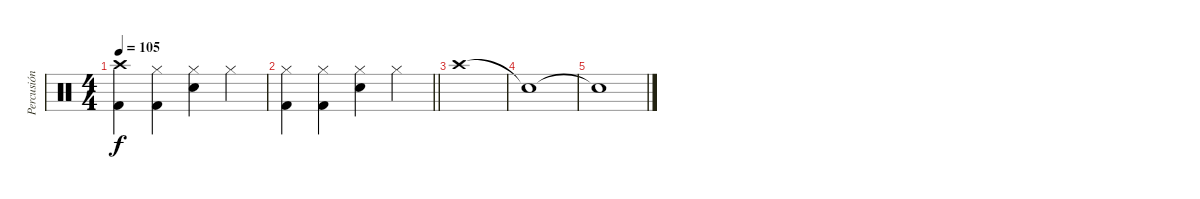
\track ("Percusión" "Percusión") {instrument percussion}
\staff {score}
\articulation defaults
\ts (4 4)
\tempo 105
\clef neutral
\ks c
("Kick (hit) 2" "Crash high (hit)").4{dy f} ("Kick (hit) 2" "Hi-Hat (closed)").4 ("Snare (hit) 2" "Hi-Hat (closed)").4 "Hi-Hat (closed)".4 |
\barLineRight lightlight
("Kick (hit) 2" "Hi-Hat (closed)").4 ("Kick (hit) 2" "Hi-Hat (closed)").4 ("Snare (hit) 2" "Hi-Hat (closed)").4 "Hi-Hat (closed)".4 |
"Crash high (hit)".1 |
"Snare (hit)"{t}.1 |
"Snare (hit)"{t}.1
